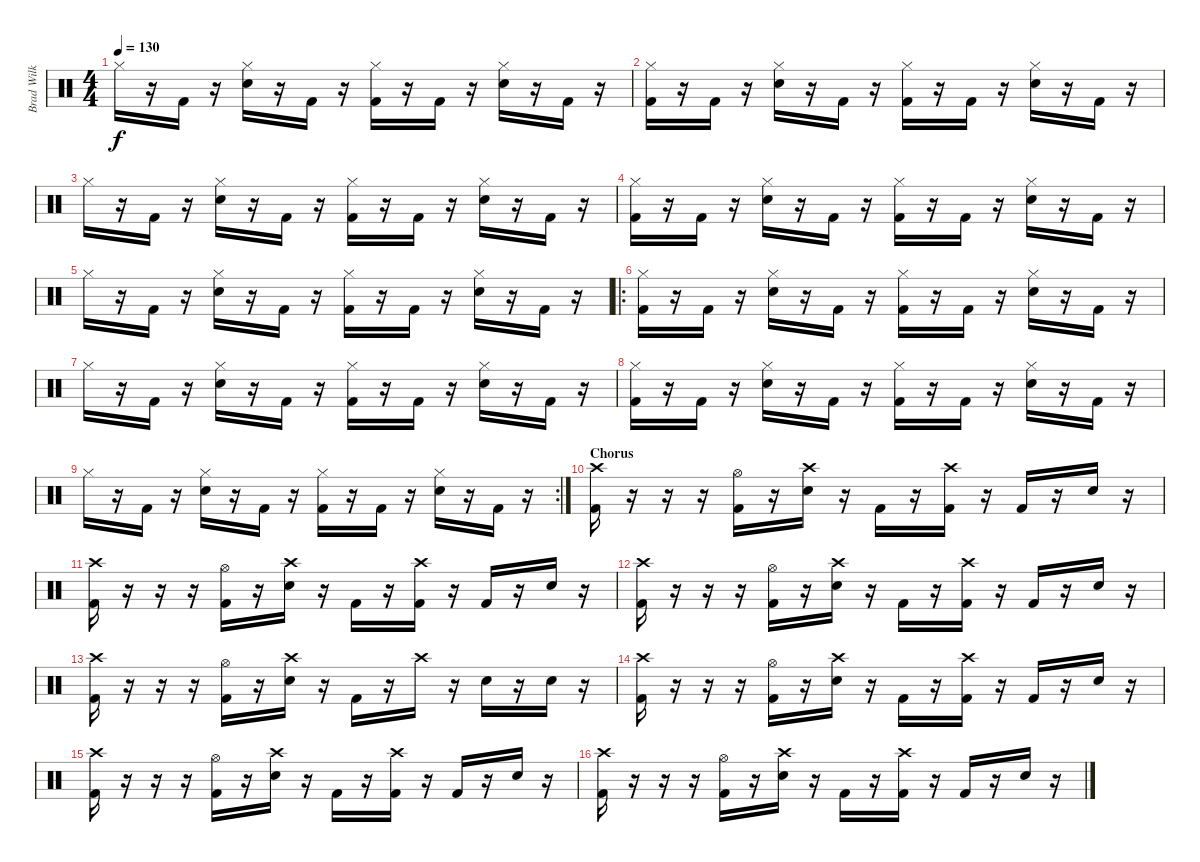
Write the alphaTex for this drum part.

\track ("Brad Wilk - Drums" "Brad Wilk ") {instrument percussion}
\staff {score}
\articulation defaults
\ts (4 4)
\tempo 130
\clef neutral
\ks c "Hi-Hat (closed)".16{dy f}
r.16 "Kick (hit) 2".16 r.16 ("Hi-Hat (closed)" "Electric Snare (hit)").16 r.16 "Kick (hit) 2".16 r.16 ("Hi-Hat (closed)" "Kick (hit) 2").16 r.16 "Kick (hit) 2".16 r.16 ("Hi-Hat (closed)" "Electric Snare (hit)").16 r.16 "Kick (hit) 2".16 r.16 |
("Hi-Hat (closed)" "Kick (hit) 2").16 r.16 "Kick (hit) 2".16 r.16 ("Hi-Hat (closed)" "Electric Snare (hit)").16 r.16 "Kick (hit) 2".16 r.16 ("Hi-Hat (closed)" "Kick (hit) 2").16 r.16 "Kick (hit) 2".16 r.16 ("Hi-Hat (closed)" "Electric Snare (hit)").16 r.16 "Kick (hit) 2".16 r.16 |
"Hi-Hat (closed)".16 r.16 "Kick (hit) 2".16 r.16 ("Hi-Hat (closed)" "Electric Snare (hit)").16 r.16 "Kick (hit) 2".16 r.16 ("Hi-Hat (closed)" "Kick (hit) 2").16 r.16 "Kick (hit) 2".16 r.16 ("Hi-Hat (closed)" "Electric Snare (hit)").16 r.16 "Kick (hit) 2".16 r.16 |
("Hi-Hat (closed)" "Kick (hit) 2").16 r.16 "Kick (hit) 2".16 r.16 ("Hi-Hat (closed)" "Electric Snare (hit)").16 r.16 "Kick (hit) 2".16 r.16 ("Hi-Hat (closed)" "Kick (hit) 2").16 r.16 "Kick (hit) 2".16 r.16 ("Hi-Hat (closed)" "Electric Snare (hit)").16 r.16 "Kick (hit) 2".16 r.16 |
"Hi-Hat (closed)".16 r.16 "Kick (hit) 2".16 r.16 ("Hi-Hat (closed)" "Electric Snare (hit)").16 r.16 "Kick (hit) 2".16 r.16 ("Hi-Hat (closed)" "Kick (hit) 2").16 r.16 "Kick (hit) 2".16 r.16 ("Hi-Hat (closed)" "Electric Snare (hit)").16 r.16 "Kick (hit) 2".16 r.16 |
\ro
("Hi-Hat (closed)" "Kick (hit) 2").16 r.16 "Kick (hit) 2".16 r.16 ("Hi-Hat (closed)" "Electric Snare (hit)").16 r.16 "Kick (hit) 2".16 r.16 ("Hi-Hat (closed)" "Kick (hit) 2").16 r.16 "Kick (hit) 2".16 r.16 ("Hi-Hat (closed)" "Electric Snare (hit)").16 r.16 "Kick (hit) 2".16 r.16 |
"Hi-Hat (closed)".16 r.16 "Kick (hit) 2".16 r.16 ("Hi-Hat (closed)" "Electric Snare (hit)").16 r.16 "Kick (hit) 2".16 r.16 ("Hi-Hat (closed)" "Kick (hit) 2").16 r.16 "Kick (hit) 2".16 r.16 ("Hi-Hat (closed)" "Electric Snare (hit)").16 r.16 "Kick (hit) 2".16 r.16 |
("Hi-Hat (closed)" "Kick (hit) 2").16 r.16 "Kick (hit) 2".16 r.16 ("Hi-Hat (closed)" "Electric Snare (hit)").16 r.16 "Kick (hit) 2".16 r.16 ("Hi-Hat (closed)" "Kick (hit) 2").16 r.16 "Kick (hit) 2".16 r.16 ("Hi-Hat (closed)" "Electric Snare (hit)").16 r.16 "Kick (hit) 2".16 r.16 |
\rc 2 "Hi-Hat (closed)".16
r.16 "Kick (hit) 2".16 r.16 ("Hi-Hat (closed)" "Electric Snare (hit)").16 r.16 "Kick (hit) 2".16 r.16 ("Hi-Hat (closed)" "Kick (hit) 2").16 r.16 "Kick (hit) 2".16 r.16 ("Hi-Hat (closed)" "Electric Snare (hit)").16 r.16 "Kick (hit) 2".16 r.16 |
\section ("" "Chorus")
("Crash high (hit)" "Kick (hit) 2").16 r.16 r.16 r.16 ("Hi-Hat (open)" "Kick (hit) 2").16 r.16 ("Crash high (hit)" "Electric Snare (hit)").16 r.16 "Kick (hit) 2".16 r.16 ("Crash high (hit)" "Kick (hit) 2").16 r.16 "Kick (hit) 2".16 r.16 "Electric Snare (hit)".16 r.16 |
("Crash high (hit)" "Kick (hit) 2").16 r.16 r.16 r.16 ("Hi-Hat (open)" "Kick (hit) 2").16 r.16 ("Crash high (hit)" "Electric Snare (hit)").16 r.16 "Kick (hit) 2".16 r.16 ("Crash high (hit)" "Kick (hit) 2").16 r.16 "Kick (hit) 2".16 r.16 "Electric Snare (hit)".16 r.16 |
("Crash high (hit)" "Kick (hit) 2").16 r.16 r.16 r.16 ("Hi-Hat (open)" "Kick (hit) 2").16 r.16 ("Crash high (hit)" "Electric Snare (hit)").16 r.16 "Kick (hit) 2".16 r.16 ("Crash high (hit)" "Kick (hit) 2").16 r.16 "Kick (hit) 2".16 r.16 "Electric Snare (hit)".16 r.16 |
("Crash high (hit)" "Kick (hit) 2").16 r.16 r.16 r.16 ("Hi-Hat (open)" "Kick (hit) 2").16 r.16 ("Crash high (hit)" "Electric Snare (hit)").16 r.16 "Kick (hit) 2".16 r.16 "Crash high (hit)".16 r.16 "Electric Snare (hit)".16 r.16 "Electric Snare (hit)".16 r.16 |
("Crash high (hit)" "Kick (hit) 2").16 r.16 r.16 r.16 ("Hi-Hat (open)" "Kick (hit) 2").16 r.16 ("Crash high (hit)" "Electric Snare (hit)").16 r.16 "Kick (hit) 2".16 r.16 ("Crash high (hit)" "Kick (hit) 2").16 r.16 "Kick (hit) 2".16 r.16 "Electric Snare (hit)".16 r.16 |
("Crash high (hit)" "Kick (hit) 2").16 r.16 r.16 r.16 ("Hi-Hat (open)" "Kick (hit) 2").16 r.16 ("Crash high (hit)" "Electric Snare (hit)").16 r.16 "Kick (hit) 2".16 r.16 ("Crash high (hit)" "Kick (hit) 2").16 r.16 "Kick (hit) 2".16 r.16 "Electric Snare (hit)".16 r.16 |
("Crash high (hit)" "Kick (hit) 2").16 r.16 r.16 r.16 ("Hi-Hat (open)" "Kick (hit) 2").16 r.16 ("Crash high (hit)" "Electric Snare (hit)").16 r.16 "Kick (hit) 2".16 r.16 ("Crash high (hit)" "Kick (hit) 2").16 r.16 "Kick (hit) 2".16 r.16 "Electric Snare (hit)".16 r.16
